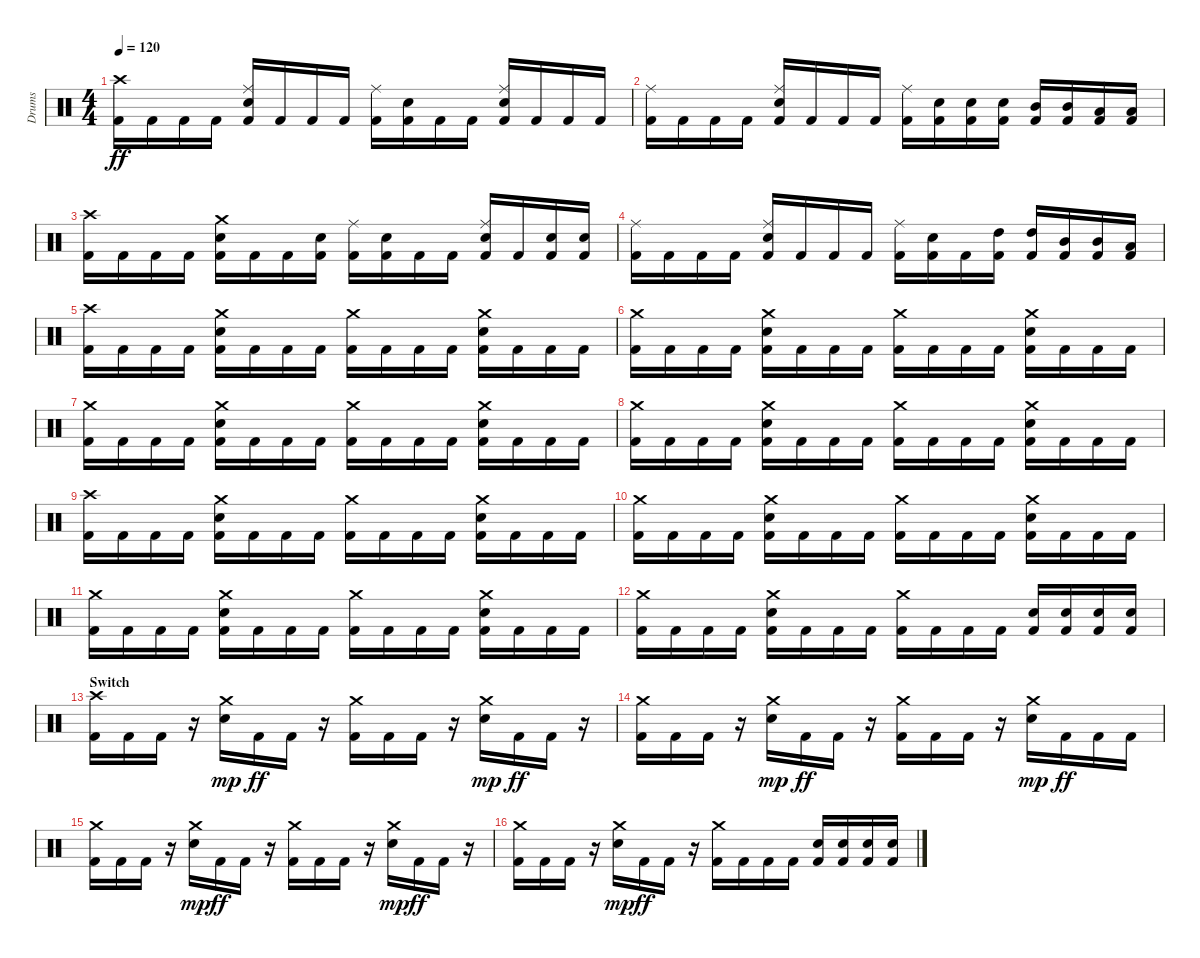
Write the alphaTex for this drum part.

\track ("Drums" "Drums") {instrument percussion}
\staff {score}
\articulation defaults
\ts (4 4)
\tempo 120
\clef neutral
\ks c
("Crash high (hit)" "Kick (hit) 2").16{dy ff} "Kick (hit) 2".16 "Kick (hit) 2".16 "Kick (hit) 2".16 ("Ride (middle)" "Electric Snare (hit)" "Kick (hit) 2").16 "Kick (hit) 2".16 "Kick (hit) 2".16 "Kick (hit) 2".16 ("Ride (middle)" "Kick (hit) 2").16 ("Electric Snare (hit)" "Kick (hit) 2").16 "Kick (hit) 2".16 "Kick (hit) 2".16 ("Ride (middle)" "Electric Snare (hit)" "Kick (hit) 2").16 "Kick (hit) 2".16 "Kick (hit) 2".16 "Kick (hit) 2".16 |
("Ride (middle)" "Kick (hit) 2").16 "Kick (hit) 2".16 "Kick (hit) 2".16 "Kick (hit) 2".16 ("Ride (middle)" "Electric Snare (hit)" "Kick (hit) 2").16 "Kick (hit) 2".16 "Kick (hit) 2".16 "Kick (hit) 2".16 ("Ride (middle)" "Kick (hit) 2").16 ("Electric Snare (hit)" "Kick (hit) 2").16 ("Electric Snare (hit)" "Kick (hit) 2").16 ("Electric Snare (hit)" "Kick (hit) 2").16 ("Mid Tom (hit)" "Kick (hit) 2").16 ("Mid Tom (hit)" "Kick (hit) 2").16 ("Low Tom (hit)" "Kick (hit) 2").16 ("Low Tom (hit)" "Kick (hit) 2").16 |
("Crash high (hit)" "Kick (hit) 2").16 "Kick (hit) 2".16 "Kick (hit) 2".16 "Kick (hit) 2".16 ("Crash medium (hit)" "Electric Snare (hit)" "Kick (hit) 2").16 "Kick (hit) 2".16 "Kick (hit) 2".16 ("Electric Snare (hit)" "Kick (hit) 2").16 ("Ride (middle)" "Kick (hit) 2").16 ("Electric Snare (hit)" "Kick (hit) 2").16 "Kick (hit) 2".16 "Kick (hit) 2".16 ("Ride (middle)" "Electric Snare (hit)" "Kick (hit) 2").16 "Kick (hit) 2".16 ("Electric Snare (hit)" "Kick (hit) 2").16 ("Electric Snare (hit)" "Kick (hit) 2").16 |
("Ride (middle)" "Kick (hit) 2").16 "Kick (hit) 2".16 "Kick (hit) 2".16 "Kick (hit) 2".16 ("Ride (middle)" "Electric Snare (hit)" "Kick (hit) 2").16 "Kick (hit) 2".16 "Kick (hit) 2".16 "Kick (hit) 2".16 ("Ride (middle)" "Kick (hit) 2").16 ("Electric Snare (hit)" "Kick (hit) 2").16 "Kick (hit) 2".16 ("High Tom (hit)" "Kick (hit) 2").16 ("High Tom (hit)" "Kick (hit) 2").16 ("Mid Tom (hit)" "Kick (hit) 2").16 ("Mid Tom (hit)" "Kick (hit) 2").16 ("Low Tom (hit)" "Kick (hit) 2").16 |
("Crash high (hit)" "Kick (hit) 2").16 "Kick (hit) 2".16 "Kick (hit) 2".16 "Kick (hit) 2".16 ("Crash medium (hit)" "Electric Snare (hit)" "Kick (hit) 2").16 "Kick (hit) 2".16 "Kick (hit) 2".16 "Kick (hit) 2".16 ("Crash medium (hit)" "Kick (hit) 2").16 "Kick (hit) 2".16 "Kick (hit) 2".16 "Kick (hit) 2".16 ("Crash medium (hit)" "Electric Snare (hit)" "Kick (hit) 2").16 "Kick (hit) 2".16 "Kick (hit) 2".16 "Kick (hit) 2".16 |
("Crash medium (hit)" "Kick (hit) 2").16 "Kick (hit) 2".16 "Kick (hit) 2".16 "Kick (hit) 2".16 ("Crash medium (hit)" "Electric Snare (hit)" "Kick (hit) 2").16 "Kick (hit) 2".16 "Kick (hit) 2".16 "Kick (hit) 2".16 ("Crash medium (hit)" "Kick (hit) 2").16 "Kick (hit) 2".16 "Kick (hit) 2".16 "Kick (hit) 2".16 ("Crash medium (hit)" "Electric Snare (hit)" "Kick (hit) 2").16 "Kick (hit) 2".16 "Kick (hit) 2".16 "Kick (hit) 2".16 |
("Crash medium (hit)" "Kick (hit) 2").16 "Kick (hit) 2".16 "Kick (hit) 2".16 "Kick (hit) 2".16 ("Crash medium (hit)" "Electric Snare (hit)" "Kick (hit) 2").16 "Kick (hit) 2".16 "Kick (hit) 2".16 "Kick (hit) 2".16 ("Crash medium (hit)" "Kick (hit) 2").16 "Kick (hit) 2".16 "Kick (hit) 2".16 "Kick (hit) 2".16 ("Crash medium (hit)" "Electric Snare (hit)" "Kick (hit) 2").16 "Kick (hit) 2".16 "Kick (hit) 2".16 "Kick (hit) 2".16 |
("Crash medium (hit)" "Kick (hit) 2").16 "Kick (hit) 2".16 "Kick (hit) 2".16 "Kick (hit) 2".16 ("Crash medium (hit)" "Electric Snare (hit)" "Kick (hit) 2").16 "Kick (hit) 2".16 "Kick (hit) 2".16 "Kick (hit) 2".16 ("Crash medium (hit)" "Kick (hit) 2").16 "Kick (hit) 2".16 "Kick (hit) 2".16 "Kick (hit) 2".16 ("Crash medium (hit)" "Electric Snare (hit)" "Kick (hit) 2").16 "Kick (hit) 2".16 "Kick (hit) 2".16 "Kick (hit) 2".16 |
("Crash high (hit)" "Kick (hit) 2").16 "Kick (hit) 2".16 "Kick (hit) 2".16 "Kick (hit) 2".16 ("Crash medium (hit)" "Electric Snare (hit)" "Kick (hit) 2").16 "Kick (hit) 2".16 "Kick (hit) 2".16 "Kick (hit) 2".16 ("Crash medium (hit)" "Kick (hit) 2").16 "Kick (hit) 2".16 "Kick (hit) 2".16 "Kick (hit) 2".16 ("Crash medium (hit)" "Electric Snare (hit)" "Kick (hit) 2").16 "Kick (hit) 2".16 "Kick (hit) 2".16 "Kick (hit) 2".16 |
("Crash medium (hit)" "Kick (hit) 2").16 "Kick (hit) 2".16 "Kick (hit) 2".16 "Kick (hit) 2".16 ("Crash medium (hit)" "Electric Snare (hit)" "Kick (hit) 2").16 "Kick (hit) 2".16 "Kick (hit) 2".16 "Kick (hit) 2".16 ("Crash medium (hit)" "Kick (hit) 2").16 "Kick (hit) 2".16 "Kick (hit) 2".16 "Kick (hit) 2".16 ("Crash medium (hit)" "Electric Snare (hit)" "Kick (hit) 2").16 "Kick (hit) 2".16 "Kick (hit) 2".16 "Kick (hit) 2".16 |
("Crash medium (hit)" "Kick (hit) 2").16 "Kick (hit) 2".16 "Kick (hit) 2".16 "Kick (hit) 2".16 ("Crash medium (hit)" "Electric Snare (hit)" "Kick (hit) 2").16 "Kick (hit) 2".16 "Kick (hit) 2".16 "Kick (hit) 2".16 ("Crash medium (hit)" "Kick (hit) 2").16 "Kick (hit) 2".16 "Kick (hit) 2".16 "Kick (hit) 2".16 ("Crash medium (hit)" "Electric Snare (hit)" "Kick (hit) 2").16 "Kick (hit) 2".16 "Kick (hit) 2".16 "Kick (hit) 2".16 |
("Crash medium (hit)" "Kick (hit) 2").16 "Kick (hit) 2".16 "Kick (hit) 2".16 "Kick (hit) 2".16 ("Crash medium (hit)" "Electric Snare (hit)" "Kick (hit) 2").16 "Kick (hit) 2".16 "Kick (hit) 2".16 "Kick (hit) 2".16 ("Crash medium (hit)" "Kick (hit) 2").16 "Kick (hit) 2".16 "Kick (hit) 2".16 "Kick (hit) 2".16 ("Electric Snare (hit)" "Kick (hit) 2").16 ("Electric Snare (hit)" "Kick (hit) 2").16 ("Electric Snare (hit)" "Kick (hit) 2").16 ("Electric Snare (hit)" "Kick (hit) 2").16 |
\section ("" "Switch")
("Crash high (hit)" "Kick (hit) 2").16 "Kick (hit) 2".16 "Kick (hit) 2".16 r.16 ("Crash medium (hit)" "Electric Snare (hit)").16{dy mp} "Kick (hit) 2".16{dy ff} "Kick (hit) 2".16 r.16 ("Crash medium (hit)" "Kick (hit) 2").16 "Kick (hit) 2".16 "Kick (hit) 2".16 r.16 ("Crash medium (hit)" "Electric Snare (hit)").16{dy mp} "Kick (hit) 2".16{dy ff} "Kick (hit) 2".16 r.16 |
("Crash medium (hit)" "Kick (hit) 2").16 "Kick (hit) 2".16 "Kick (hit) 2".16 r.16 ("Crash medium (hit)" "Electric Snare (hit)").16{dy mp} "Kick (hit) 2".16{dy ff} "Kick (hit) 2".16 r.16 ("Crash medium (hit)" "Kick (hit) 2").16 "Kick (hit) 2".16 "Kick (hit) 2".16 r.16 ("Crash medium (hit)" "Electric Snare (hit)").16{dy mp} "Kick (hit) 2".16{dy ff} "Kick (hit) 2".16 "Kick (hit) 2".16 |
("Crash medium (hit)" "Kick (hit) 2").16 "Kick (hit) 2".16 "Kick (hit) 2".16 r.16 ("Crash medium (hit)" "Electric Snare (hit)").16{dy mp} "Kick (hit) 2".16{dy ff} "Kick (hit) 2".16 r.16 ("Crash medium (hit)" "Kick (hit) 2").16 "Kick (hit) 2".16 "Kick (hit) 2".16 r.16 ("Crash medium (hit)" "Electric Snare (hit)").16{dy mp} "Kick (hit) 2".16{dy ff} "Kick (hit) 2".16 r.16 |
("Crash medium (hit)" "Kick (hit) 2").16 "Kick (hit) 2".16 "Kick (hit) 2".16 r.16 ("Crash medium (hit)" "Electric Snare (hit)").16{dy mp} "Kick (hit) 2".16{dy ff} "Kick (hit) 2".16 r.16 ("Crash medium (hit)" "Kick (hit) 2").16 "Kick (hit) 2".16 "Kick (hit) 2".16 "Kick (hit) 2".16 ("Electric Snare (hit)" "Kick (hit) 2").16 ("Electric Snare (hit)" "Kick (hit) 2").16 ("Electric Snare (hit)" "Kick (hit) 2").16 ("Electric Snare (hit)" "Kick (hit) 2").16
